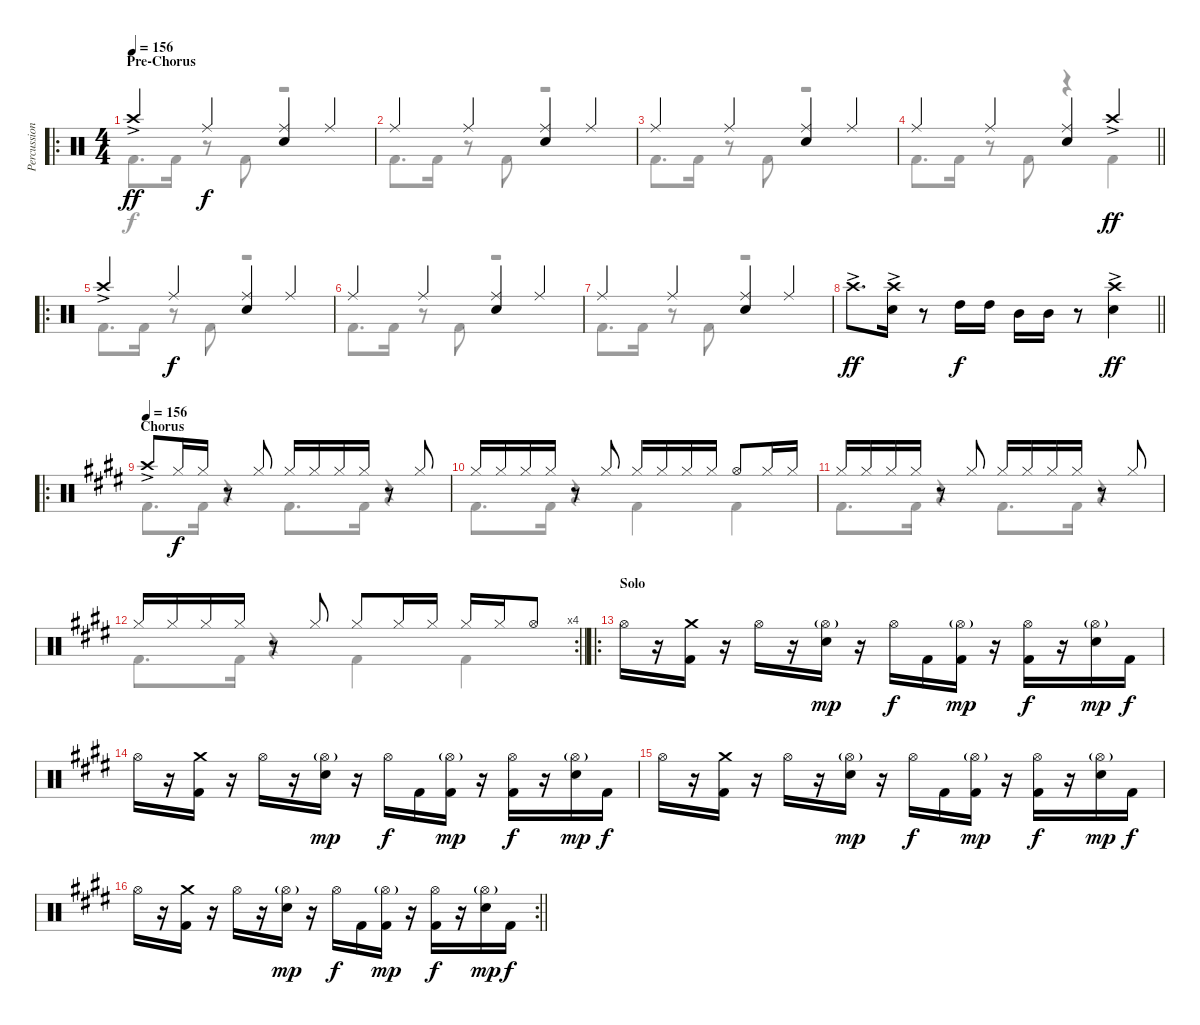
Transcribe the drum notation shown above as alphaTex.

\track ("Percussion" "Percussion") {instrument percussion}
\staff {score}
\articulation defaults
\voice
\ro
\ts (4 4)
\section ("" "Pre-Chorus")
\tempo 156
\clef neutral
\ks c "Crash high (hit)"{ac}.4{dy ff} "Ride (middle)".4{dy f}
("Ride (middle)" "Snare (hit) 2").4 "Ride (middle)".4 |
"Ride (middle)".4 "Ride (middle)".4 ("Ride (middle)" "Snare (hit) 2").4 "Ride (middle)".4 |
"Ride (middle)".4 "Ride (middle)".4 ("Ride (middle)" "Snare (hit) 2").4 "Ride (middle)".4 |
\barLineRight lightlight "Ride (middle)".4 "Ride (middle)".4
("Ride (middle)" "Snare (hit) 2").4 "Crash high (hit)"{ac}.4{dy ff} |
\ro "Crash high (hit)"{ac}.4 "Ride (middle)".4{dy f}
("Ride (middle)" "Snare (hit) 2").4 "Ride (middle)".4 |
"Ride (middle)".4 "Ride (middle)".4 ("Ride (middle)" "Snare (hit) 2").4 "Ride (middle)".4 |
"Ride (middle)".4 "Ride (middle)".4 ("Ride (middle)" "Snare (hit) 2").4 "Ride (middle)".4 |
\barLineRight lightlight "Crash high (hit)"{ac}.8{d dy ff}
("Crash high (hit)"{ac} "Snare (hit) 2").16 r.8 "High Tom (hit)".16{dy f} "High Tom (hit)".16 "Mid Tom (hit)".16 "Mid Tom (hit)".16 r.8 ("Crash high (hit)"{ac} "Snare (hit) 2").4{dy ff} |
\ro
\section ("" "Chorus")
\tempo 156
\ks c#minor "Crash high (hit)"{ac}.8 "Hi-Hat (closed)".16{dy f} "Hi-Hat (closed)".16
r.8 "Hi-Hat (closed)".8 "Hi-Hat (closed)".16 "Hi-Hat (closed)".16 "Hi-Hat (closed)".16 "Hi-Hat (closed)".16 r.8 "Hi-Hat (closed)".8 |
"Hi-Hat (closed)".16 "Hi-Hat (closed)".16 "Hi-Hat (closed)".16 "Hi-Hat (closed)".16 r.8 "Hi-Hat (closed)".8 "Hi-Hat (closed)".16 "Hi-Hat (closed)".16 "Hi-Hat (closed)".16 "Hi-Hat (closed)".16 "Hi-Hat (open)".8 "Hi-Hat (closed)".16 "Hi-Hat (closed)".16 |
"Hi-Hat (closed)".16 "Hi-Hat (closed)".16 "Hi-Hat (closed)".16 "Hi-Hat (closed)".16 r.8 "Hi-Hat (closed)".8 "Hi-Hat (closed)".16 "Hi-Hat (closed)".16 "Hi-Hat (closed)".16 "Hi-Hat (closed)".16 r.8 "Hi-Hat (closed)".8 |
\rc 4
\barLineRight lightlight "Hi-Hat (closed)".16 "Hi-Hat (closed)".16 "Hi-Hat (closed)".16 "Hi-Hat (closed)".16
r.8 "Hi-Hat (closed)".8 "Hi-Hat (closed)".8 "Hi-Hat (closed)".16 "Hi-Hat (closed)".16 "Hi-Hat (closed)".16 "Hi-Hat (closed)".16 "Hi-Hat (open)".8 |
\ro
\section ("" "Solo")
"Hi-Hat (open)".16 r.16 ("Crash medium (hit)" "Kick (hit) 2").16 r.16 "Hi-Hat (open)".16 r.16 ("Hi-Hat (open)"{g} "Electric Snare (hit)").16{dy mp} r.16 "Hi-Hat (open)".16{dy f} "Kick (hit) 2".16 ("Hi-Hat (open)"{g} "Kick (hit) 2").16{dy mp} r.16 ("Hi-Hat (open)" "Kick (hit) 2").16{dy f} r.16 ("Hi-Hat (open)"{g} "Electric Snare (hit)").16{dy mp} "Kick (hit) 2".16{dy f} |
"Hi-Hat (open)".16 r.16 ("Crash medium (hit)" "Kick (hit) 2").16 r.16 "Hi-Hat (open)".16 r.16 ("Hi-Hat (open)"{g} "Electric Snare (hit)").16{dy mp} r.16 "Hi-Hat (open)".16{dy f} "Kick (hit) 2".16 ("Hi-Hat (open)"{g} "Kick (hit) 2").16{dy mp} r.16 ("Hi-Hat (open)" "Kick (hit) 2").16{dy f} r.16 ("Hi-Hat (open)"{g} "Electric Snare (hit)").16{dy mp} "Kick (hit) 2".16{dy f} |
"Hi-Hat (open)".16 r.16 ("Crash medium (hit)" "Kick (hit) 2").16 r.16 "Hi-Hat (open)".16 r.16 ("Hi-Hat (open)"{g} "Electric Snare (hit)").16{dy mp} r.16 "Hi-Hat (open)".16{dy f} "Kick (hit) 2".16 ("Hi-Hat (open)"{g} "Kick (hit) 2").16{dy mp} r.16 ("Hi-Hat (open)" "Kick (hit) 2").16{dy f} r.16 ("Hi-Hat (open)"{g} "Electric Snare (hit)").16{dy mp} "Kick (hit) 2".16{dy f} |
\rc 2
\barLineRight lightlight "Hi-Hat (open)".16
r.16 ("Crash medium (hit)" "Kick (hit) 2").16 r.16 "Hi-Hat (open)".16 r.16 ("Hi-Hat (open)"{g} "Electric Snare (hit)").16{dy mp} r.16 "Hi-Hat (open)".16{dy f} "Kick (hit) 2".16 ("Hi-Hat (open)"{g} "Kick (hit) 2").16{dy mp} r.16 ("Hi-Hat (open)" "Kick (hit) 2").16{dy f} r.16 ("Hi-Hat (open)"{g} "Electric Snare (hit)").16{dy mp} "Kick (hit) 2".16{dy f}
\voice
\clef neutral
\ottava regular
\simile none
\ks c "Kick (hit) 2".8{d dy f} "Kick (hit) 2".16
r.8 "Kick (hit) 2".8 r.2 |
"Kick (hit) 2".8{d} "Kick (hit) 2".16 r.8 "Kick (hit) 2".8 r.2 |
"Kick (hit) 2".8{d} "Kick (hit) 2".16 r.8 "Kick (hit) 2".8 r.2 |
\barLineRight lightlight "Kick (hit) 2".8{d} "Kick (hit) 2".16
r.8 "Kick (hit) 2".8 r.4 "Kick (hit) 2".4 |
"Kick (hit) 2".8{d} "Kick (hit) 2".16 r.8 "Kick (hit) 2".8 r.2 |
"Kick (hit) 2".8{d} "Kick (hit) 2".16 r.8 "Kick (hit) 2".8 r.2 |
"Kick (hit) 2".8{d} "Kick (hit) 2".16 r.8 "Kick (hit) 2".8 r.2 |
\barLineRight lightlight
|
\ks c#minor "Kick (hit) 2".8{d} "Kick (hit) 2".16
r.4 "Kick (hit) 2".8{d} "Kick (hit) 2".16 r.4 |
"Kick (hit) 2".8{d} "Kick (hit) 2".16 r.4 "Kick (hit) 2".4 "Kick (hit) 2".4 |
"Kick (hit) 2".8{d} "Kick (hit) 2".16 r.4 "Kick (hit) 2".8{d} "Kick (hit) 2".16 r.4 |
\barLineRight lightlight "Kick (hit) 2".8{d} "Kick (hit) 2".16
r.4 "Kick (hit) 2".4 "Kick (hit) 2".4 |
|
|
|
\barLineRight lightlight
